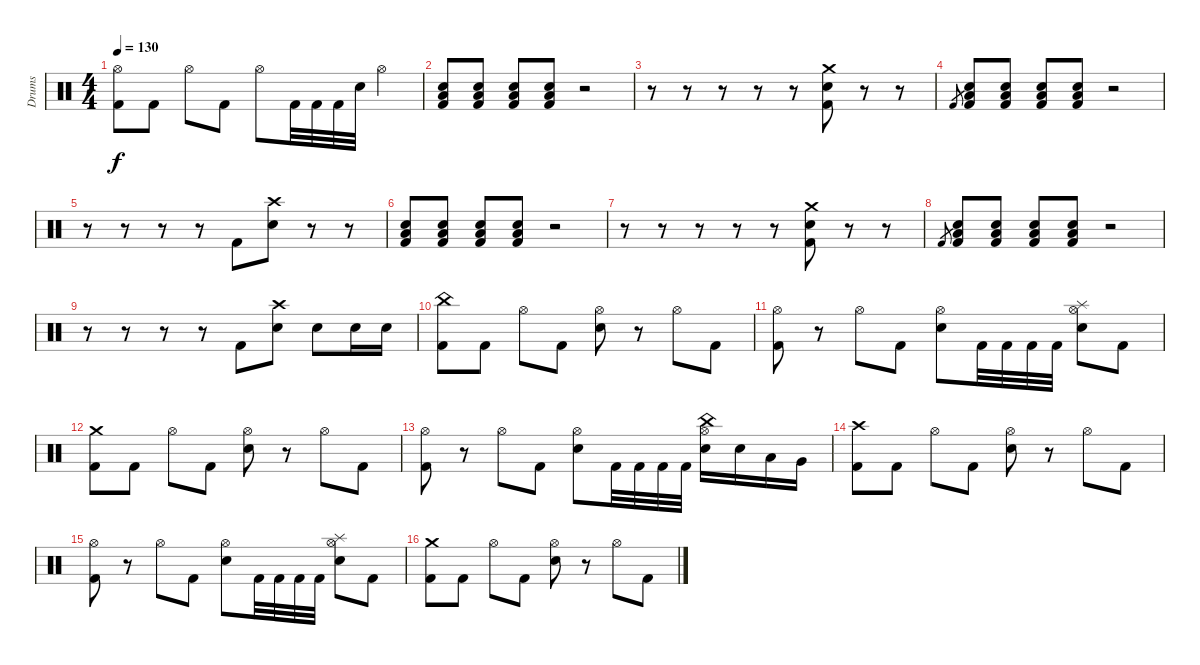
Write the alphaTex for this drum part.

\track ("Drums" "Drums") {instrument percussion}
\staff {score}
\articulation defaults
\ts (4 4)
\tempo 130
\clef neutral
\ks c
("Hi-Hat (open)" "Kick (hit) 2").8{dy f} "Kick (hit) 2".8 "Hi-Hat (open)".8 "Kick (hit) 2".8 "Hi-Hat (open)".8 "Kick (hit) 2".32 "Kick (hit) 2".32 "Kick (hit) 2".32 "Electric Snare (hit)".32 "Hi-Hat (open)".4 |
("Low Floor Tom (hit)" "Electric Snare (hit)" "Kick (hit) 2").8 ("Low Floor Tom (hit)" "Electric Snare (hit)" "Kick (hit) 2").8 ("Low Floor Tom (hit)" "Electric Snare (hit)" "Kick (hit) 2").8 ("Low Floor Tom (hit)" "Electric Snare (hit)" "Kick (hit) 2").8 r.2 |
r.8 r.8 r.8 r.8 r.8 ("Crash medium (hit)" "Electric Snare (hit)" "Kick (hit) 2").8 r.8 r.8 |
"Kick (hit) 2".8{gr} ("Low Floor Tom (hit)" "Electric Snare (hit)" "Kick (hit) 2").8 ("Low Floor Tom (hit)" "Electric Snare (hit)" "Kick (hit) 2").8 ("Low Floor Tom (hit)" "Electric Snare (hit)" "Kick (hit) 2").8 ("Low Floor Tom (hit)" "Electric Snare (hit)" "Kick (hit) 2").8 r.2 |
r.8 r.8 r.8 r.8 "Kick (hit) 2".8 ("Crash high (hit)" "Electric Snare (hit)").8 r.8 r.8 |
("Low Floor Tom (hit)" "Electric Snare (hit)" "Kick (hit) 2").8 ("Low Floor Tom (hit)" "Electric Snare (hit)" "Kick (hit) 2").8 ("Low Floor Tom (hit)" "Electric Snare (hit)" "Kick (hit) 2").8 ("Low Floor Tom (hit)" "Electric Snare (hit)" "Kick (hit) 2").8 r.2 |
r.8 r.8 r.8 r.8 r.8 ("Crash medium (hit)" "Electric Snare (hit)" "Kick (hit) 2").8 r.8 r.8 |
"Kick (hit) 2".8{gr} ("Low Floor Tom (hit)" "Electric Snare (hit)" "Kick (hit) 2").8 ("Low Floor Tom (hit)" "Electric Snare (hit)" "Kick (hit) 2").8 ("Low Floor Tom (hit)" "Electric Snare (hit)" "Kick (hit) 2").8 ("Low Floor Tom (hit)" "Electric Snare (hit)" "Kick (hit) 2").8 r.2 |
r.8 r.8 r.8 r.8 "Kick (hit) 2".8 ("Crash high (hit)" "Electric Snare (hit)").8 "Electric Snare (hit)".8 "Electric Snare (hit)".16 "Electric Snare (hit)".16 |
("China (hit)" "Kick (hit) 2").8 "Kick (hit) 2".8 "Hi-Hat (open)".8 "Kick (hit) 2".8 ("Hi-Hat (open)" "Electric Snare (hit)").8 r.8 "Hi-Hat (open)".8 "Kick (hit) 2".8 |
("Hi-Hat (open)" "Kick (hit) 2").8 r.8 "Hi-Hat (open)".8 "Kick (hit) 2".8 ("Hi-Hat (open)" "Electric Snare (hit)").8 "Kick (hit) 2".32 "Kick (hit) 2".32 "Kick (hit) 2".32 "Kick (hit) 2".32 ("Hi-Hat (open)" "Electric Snare (hit)" "Splash (hit)").8 "Kick (hit) 2".8 |
("Crash medium (hit)" "Kick (hit) 2").8 "Kick (hit) 2".8 "Hi-Hat (open)".8 "Kick (hit) 2".8 ("Hi-Hat (open)" "Electric Snare (hit)").8 r.8 "Hi-Hat (open)".8 "Kick (hit) 2".8 |
("Hi-Hat (open)" "Kick (hit) 2").8 r.8 "Hi-Hat (open)".8 "Kick (hit) 2".8 ("Hi-Hat (open)" "Electric Snare (hit)").8 "Kick (hit) 2".32 "Kick (hit) 2".32 "Kick (hit) 2".32 "Kick (hit) 2".32 ("Hi-Hat (open)" "Electric Snare (hit)" "China (hit)").16 "Electric Snare (hit)".16 "Low Tom (hit)".16 "Very Low Tom (hit)".16 |
("Crash high (hit)" "Kick (hit) 2").8 "Kick (hit) 2".8 "Hi-Hat (open)".8 "Kick (hit) 2".8 ("Hi-Hat (open)" "Electric Snare (hit)").8 r.8 "Hi-Hat (open)".8 "Kick (hit) 2".8 |
("Hi-Hat (open)" "Kick (hit) 2").8 r.8 "Hi-Hat (open)".8 "Kick (hit) 2".8 ("Hi-Hat (open)" "Electric Snare (hit)").8 "Kick (hit) 2".32 "Kick (hit) 2".32 "Kick (hit) 2".32 "Kick (hit) 2".32 ("Hi-Hat (open)" "Electric Snare (hit)" "Splash (hit)").8 "Kick (hit) 2".8 |
("Crash medium (hit)" "Kick (hit) 2").8 "Kick (hit) 2".8 "Hi-Hat (open)".8 "Kick (hit) 2".8 ("Hi-Hat (open)" "Electric Snare (hit)").8 r.8 "Hi-Hat (open)".8 "Kick (hit) 2".8
